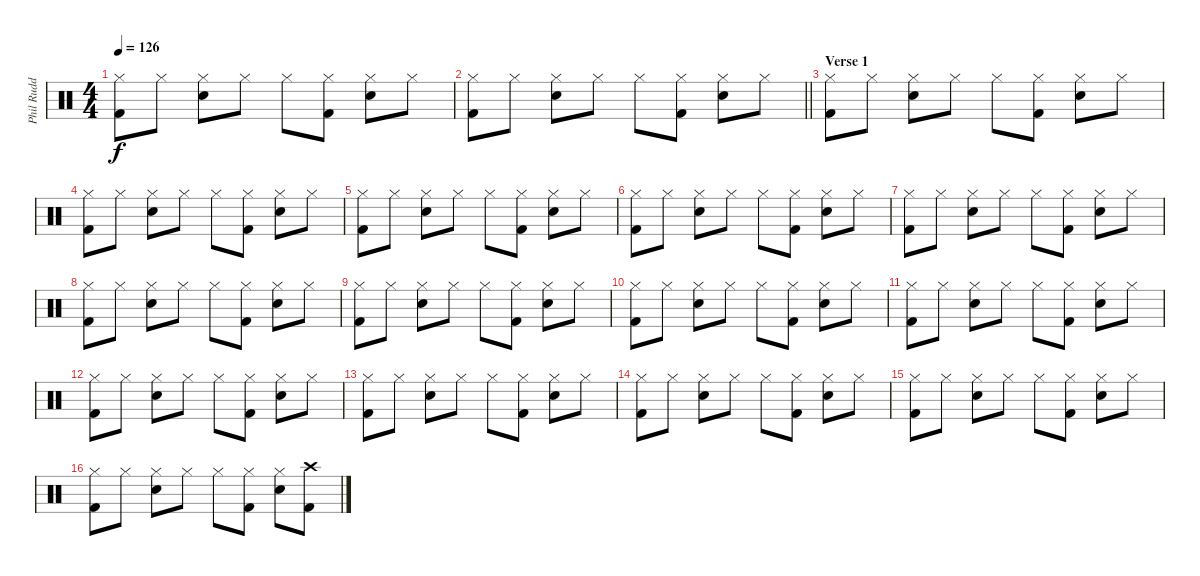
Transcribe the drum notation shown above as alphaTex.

\track ("Phil Rudd (Drums)" "Phil Rudd ") {instrument percussion}
\staff {score}
\articulation defaults
\ts (4 4)
\tempo 126
\clef neutral
\ks c
("Hi-Hat (closed)" "Kick (hit) 2").8{dy f} "Hi-Hat (closed)".8 ("Hi-Hat (closed)" "Snare (hit) 2").8 "Hi-Hat (closed)".8 "Hi-Hat (closed)".8 ("Hi-Hat (closed)" "Kick (hit) 2").8 ("Hi-Hat (closed)" "Snare (hit) 2").8 "Hi-Hat (closed)".8 |
\barLineRight lightlight
("Hi-Hat (closed)" "Kick (hit) 2").8 "Hi-Hat (closed)".8 ("Hi-Hat (closed)" "Snare (hit) 2").8 "Hi-Hat (closed)".8 "Hi-Hat (closed)".8 ("Hi-Hat (closed)" "Kick (hit) 2").8 ("Hi-Hat (closed)" "Snare (hit) 2").8 "Hi-Hat (closed)".8 |
\section ("" "Verse 1")
("Hi-Hat (closed)" "Kick (hit) 2").8 "Hi-Hat (closed)".8 ("Hi-Hat (closed)" "Snare (hit) 2").8 "Hi-Hat (closed)".8 "Hi-Hat (closed)".8 ("Hi-Hat (closed)" "Kick (hit) 2").8 ("Hi-Hat (closed)" "Snare (hit) 2").8 "Hi-Hat (closed)".8 |
("Hi-Hat (closed)" "Kick (hit) 2").8 "Hi-Hat (closed)".8 ("Hi-Hat (closed)" "Snare (hit) 2").8 "Hi-Hat (closed)".8 "Hi-Hat (closed)".8 ("Hi-Hat (closed)" "Kick (hit) 2").8 ("Hi-Hat (closed)" "Snare (hit) 2").8 "Hi-Hat (closed)".8 |
("Hi-Hat (closed)" "Kick (hit) 2").8 "Hi-Hat (closed)".8 ("Hi-Hat (closed)" "Snare (hit) 2").8 "Hi-Hat (closed)".8 "Hi-Hat (closed)".8 ("Hi-Hat (closed)" "Kick (hit) 2").8 ("Hi-Hat (closed)" "Snare (hit) 2").8 "Hi-Hat (closed)".8 |
("Hi-Hat (closed)" "Kick (hit) 2").8 "Hi-Hat (closed)".8 ("Hi-Hat (closed)" "Snare (hit) 2").8 "Hi-Hat (closed)".8 "Hi-Hat (closed)".8 ("Hi-Hat (closed)" "Kick (hit) 2").8 ("Hi-Hat (closed)" "Snare (hit) 2").8 "Hi-Hat (closed)".8 |
("Hi-Hat (closed)" "Kick (hit) 2").8 "Hi-Hat (closed)".8 ("Hi-Hat (closed)" "Snare (hit) 2").8 "Hi-Hat (closed)".8 "Hi-Hat (closed)".8 ("Hi-Hat (closed)" "Kick (hit) 2").8 ("Hi-Hat (closed)" "Snare (hit) 2").8 "Hi-Hat (closed)".8 |
("Hi-Hat (closed)" "Kick (hit) 2").8 "Hi-Hat (closed)".8 ("Hi-Hat (closed)" "Snare (hit) 2").8 "Hi-Hat (closed)".8 "Hi-Hat (closed)".8 ("Hi-Hat (closed)" "Kick (hit) 2").8 ("Hi-Hat (closed)" "Snare (hit) 2").8 "Hi-Hat (closed)".8 |
("Hi-Hat (closed)" "Kick (hit) 2").8 "Hi-Hat (closed)".8 ("Hi-Hat (closed)" "Snare (hit) 2").8 "Hi-Hat (closed)".8 "Hi-Hat (closed)".8 ("Hi-Hat (closed)" "Kick (hit) 2").8 ("Hi-Hat (closed)" "Snare (hit) 2").8 "Hi-Hat (closed)".8 |
("Hi-Hat (closed)" "Kick (hit) 2").8 "Hi-Hat (closed)".8 ("Hi-Hat (closed)" "Snare (hit) 2").8 "Hi-Hat (closed)".8 "Hi-Hat (closed)".8 ("Hi-Hat (closed)" "Kick (hit) 2").8 ("Hi-Hat (closed)" "Snare (hit) 2").8 "Hi-Hat (closed)".8 |
("Hi-Hat (closed)" "Kick (hit) 2").8 "Hi-Hat (closed)".8 ("Hi-Hat (closed)" "Snare (hit) 2").8 "Hi-Hat (closed)".8 "Hi-Hat (closed)".8 ("Hi-Hat (closed)" "Kick (hit) 2").8 ("Hi-Hat (closed)" "Snare (hit) 2").8 "Hi-Hat (closed)".8 |
("Hi-Hat (closed)" "Kick (hit) 2").8 "Hi-Hat (closed)".8 ("Hi-Hat (closed)" "Snare (hit) 2").8 "Hi-Hat (closed)".8 "Hi-Hat (closed)".8 ("Hi-Hat (closed)" "Kick (hit) 2").8 ("Hi-Hat (closed)" "Snare (hit) 2").8 "Hi-Hat (closed)".8 |
("Hi-Hat (closed)" "Kick (hit) 2").8 "Hi-Hat (closed)".8 ("Hi-Hat (closed)" "Snare (hit) 2").8 "Hi-Hat (closed)".8 "Hi-Hat (closed)".8 ("Hi-Hat (closed)" "Kick (hit) 2").8 ("Hi-Hat (closed)" "Snare (hit) 2").8 "Hi-Hat (closed)".8 |
("Hi-Hat (closed)" "Kick (hit) 2").8 "Hi-Hat (closed)".8 ("Hi-Hat (closed)" "Snare (hit) 2").8 "Hi-Hat (closed)".8 "Hi-Hat (closed)".8 ("Hi-Hat (closed)" "Kick (hit) 2").8 ("Hi-Hat (closed)" "Snare (hit) 2").8 "Hi-Hat (closed)".8 |
("Hi-Hat (closed)" "Kick (hit) 2").8 "Hi-Hat (closed)".8 ("Hi-Hat (closed)" "Snare (hit) 2").8 "Hi-Hat (closed)".8 "Hi-Hat (closed)".8 ("Hi-Hat (closed)" "Kick (hit) 2").8 ("Hi-Hat (closed)" "Snare (hit) 2").8 "Hi-Hat (closed)".8 |
("Hi-Hat (closed)" "Kick (hit) 2").8 "Hi-Hat (closed)".8 ("Hi-Hat (closed)" "Snare (hit) 2").8 "Hi-Hat (closed)".8 "Hi-Hat (closed)".8 ("Hi-Hat (closed)" "Kick (hit) 2").8 ("Hi-Hat (closed)" "Snare (hit) 2").8 ("Crash high (hit)" "Kick (hit) 2").8
